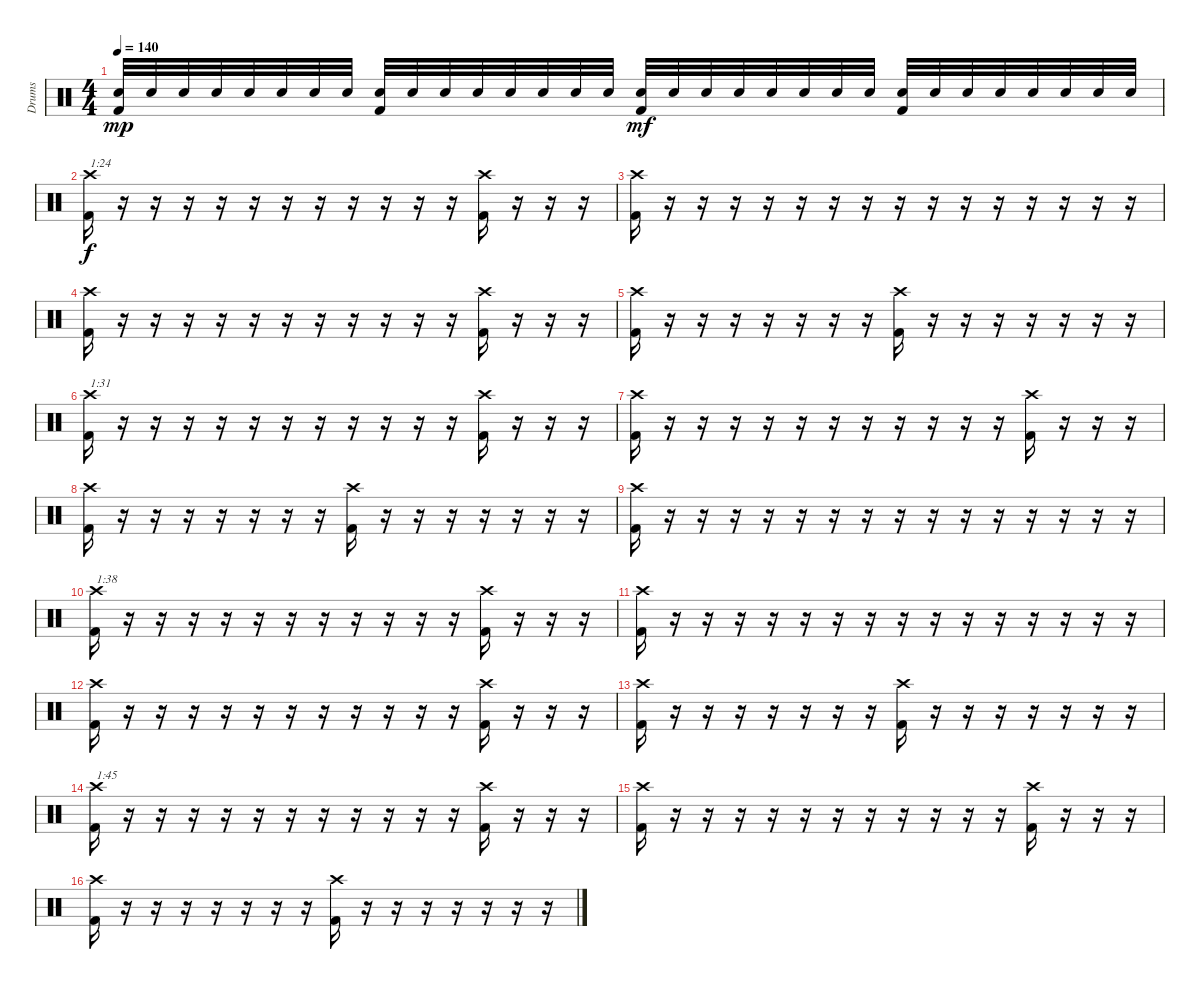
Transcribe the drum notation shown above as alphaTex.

\track ("Drums" "Drums") {instrument percussion}
\staff {score}
\articulation defaults
\ts (4 4)
\tempo 140
\clef neutral
\ks c
("Snare (hit) 2" "Kick (hit) 2").32{dy mp} "Snare (hit) 2".32 "Snare (hit) 2".32 "Snare (hit) 2".32 "Snare (hit) 2".32 "Snare (hit) 2".32 "Snare (hit) 2".32 "Snare (hit) 2".32 ("Snare (hit) 2" "Kick (hit) 2").32 "Snare (hit) 2".32 "Snare (hit) 2".32 "Snare (hit) 2".32 "Snare (hit) 2".32 "Snare (hit) 2".32 "Snare (hit) 2".32 "Snare (hit) 2".32 ("Snare (hit) 2" "Kick (hit) 2").32{dy mf} "Snare (hit) 2".32 "Snare (hit) 2".32 "Snare (hit) 2".32 "Snare (hit) 2".32 "Snare (hit) 2".32 "Snare (hit) 2".32 "Snare (hit) 2".32 ("Snare (hit) 2" "Kick (hit) 2").32 "Snare (hit) 2".32 "Snare (hit) 2".32 "Snare (hit) 2".32 "Snare (hit) 2".32 "Snare (hit) 2".32 "Snare (hit) 2".32 "Snare (hit) 2".32 |
("Crash high (hit)" "Kick (hit) 2").16{txt "1:24" dy f} r.16 r.16 r.16 r.16 r.16 r.16 r.16 r.16 r.16 r.16 r.16 ("Crash high (hit)" "Kick (hit) 2").16 r.16 r.16 r.16 |
("Crash high (hit)" "Kick (hit) 2").16 r.16 r.16 r.16 r.16 r.16 r.16 r.16 r.16 r.16 r.16 r.16 r.16 r.16 r.16 r.16 |
("Crash high (hit)" "Kick (hit) 2").16 r.16 r.16 r.16 r.16 r.16 r.16 r.16 r.16 r.16 r.16 r.16 ("Crash high (hit)" "Kick (hit) 2").16 r.16 r.16 r.16 |
("Crash high (hit)" "Kick (hit) 2").16 r.16 r.16 r.16 r.16 r.16 r.16 r.16 ("Crash high (hit)" "Kick (hit) 2").16 r.16 r.16 r.16 r.16 r.16 r.16 r.16 |
("Crash high (hit)" "Kick (hit) 2").16{txt "1:31"} r.16 r.16 r.16 r.16 r.16 r.16 r.16 r.16 r.16 r.16 r.16 ("Crash high (hit)" "Kick (hit) 2").16 r.16 r.16 r.16 |
("Crash high (hit)" "Kick (hit) 2").16 r.16 r.16 r.16 r.16 r.16 r.16 r.16 r.16 r.16 r.16 r.16 ("Crash high (hit)" "Kick (hit) 2").16 r.16 r.16 r.16 |
("Crash high (hit)" "Kick (hit) 2").16 r.16 r.16 r.16 r.16 r.16 r.16 r.16 ("Crash high (hit)" "Kick (hit) 2").16 r.16 r.16 r.16 r.16 r.16 r.16 r.16 |
("Crash high (hit)" "Kick (hit) 2").16 r.16 r.16 r.16 r.16 r.16 r.16 r.16 r.16 r.16 r.16 r.16 r.16 r.16 r.16 r.16 |
("Crash high (hit)" "Kick (hit) 2").16{txt "1:38"} r.16 r.16 r.16 r.16 r.16 r.16 r.16 r.16 r.16 r.16 r.16 ("Crash high (hit)" "Kick (hit) 2").16 r.16 r.16 r.16 |
("Crash high (hit)" "Kick (hit) 2").16 r.16 r.16 r.16 r.16 r.16 r.16 r.16 r.16 r.16 r.16 r.16 r.16 r.16 r.16 r.16 |
("Crash high (hit)" "Kick (hit) 2").16 r.16 r.16 r.16 r.16 r.16 r.16 r.16 r.16 r.16 r.16 r.16 ("Crash high (hit)" "Kick (hit) 2").16 r.16 r.16 r.16 |
("Crash high (hit)" "Kick (hit) 2").16 r.16 r.16 r.16 r.16 r.16 r.16 r.16 ("Crash high (hit)" "Kick (hit) 2").16 r.16 r.16 r.16 r.16 r.16 r.16 r.16 |
("Crash high (hit)" "Kick (hit) 2").16{txt "1:45"} r.16 r.16 r.16 r.16 r.16 r.16 r.16 r.16 r.16 r.16 r.16 ("Crash high (hit)" "Kick (hit) 2").16 r.16 r.16 r.16 |
("Crash high (hit)" "Kick (hit) 2").16 r.16 r.16 r.16 r.16 r.16 r.16 r.16 r.16 r.16 r.16 r.16 ("Crash high (hit)" "Kick (hit) 2").16 r.16 r.16 r.16 |
("Crash high (hit)" "Kick (hit) 2").16 r.16 r.16 r.16 r.16 r.16 r.16 r.16 ("Crash high (hit)" "Kick (hit) 2").16 r.16 r.16 r.16 r.16 r.16 r.16 r.16
